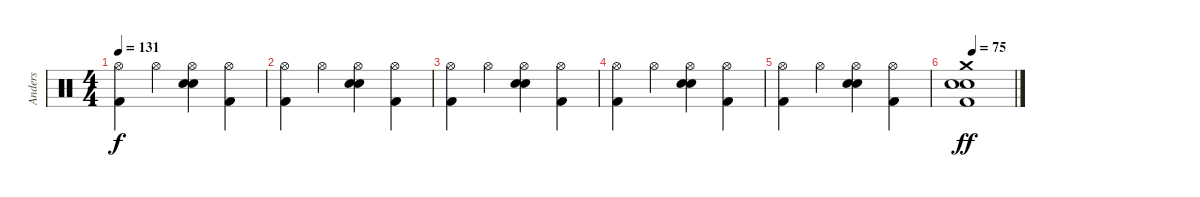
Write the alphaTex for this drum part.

\track ("Anders" "Anders") {instrument percussion}
\staff {score}
\articulation defaults
\ts (4 4)
\tempo 131
\clef neutral
\ks c
("Hi-Hat (open)" "Kick (hit) 2").4{dy f} "Hi-Hat (open)".4 ("Hi-Hat (open)" "Electric Snare (hit)" "Electric Snare (hit)").4 ("Hi-Hat (open)" "Kick (hit) 2").4 |
("Hi-Hat (open)" "Kick (hit) 2").4 "Hi-Hat (open)".4 ("Hi-Hat (open)" "Electric Snare (hit)" "Electric Snare (hit)").4 ("Hi-Hat (open)" "Kick (hit) 2").4 |
("Hi-Hat (open)" "Kick (hit) 2").4 "Hi-Hat (open)".4 ("Hi-Hat (open)" "Electric Snare (hit)" "Electric Snare (hit)").4 ("Hi-Hat (open)" "Kick (hit) 2").4 |
("Hi-Hat (open)" "Kick (hit) 2").4 "Hi-Hat (open)".4 ("Hi-Hat (open)" "Electric Snare (hit)" "Electric Snare (hit)").4 ("Hi-Hat (open)" "Kick (hit) 2").4 |
("Hi-Hat (open)" "Kick (hit) 2").4 "Hi-Hat (open)".4 ("Hi-Hat (open)" "Electric Snare (hit)" "Electric Snare (hit)").4 ("Hi-Hat (open)" "Kick (hit) 2").4 |
\tempo (75 0.25)
("Crash medium (hit)" "Electric Snare (hit)" "Electric Snare (hit)" "Kick (hit) 2").1{dy ff}
